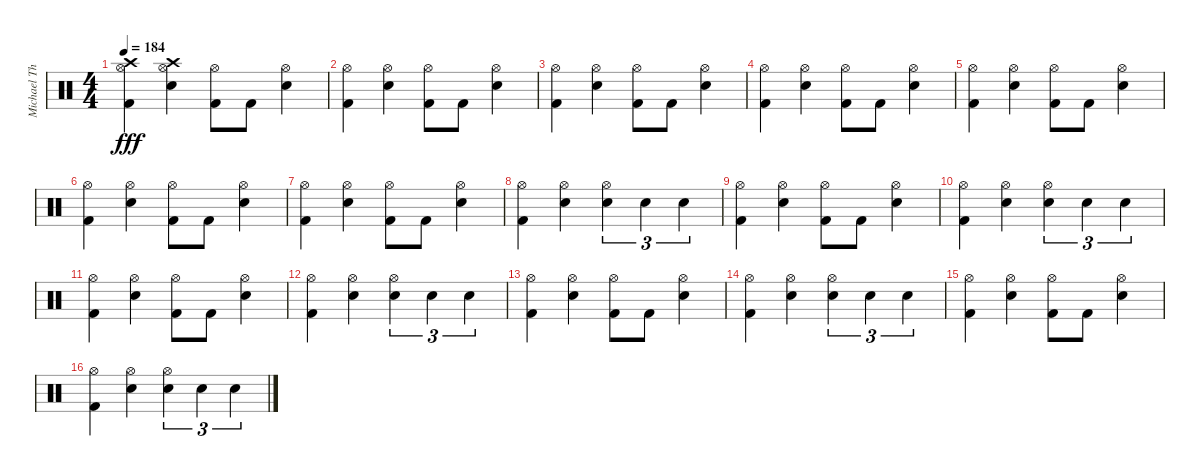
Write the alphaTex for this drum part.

\track ("Michael Thomas" "Michael Th") {instrument percussion}
\staff {score}
\articulation defaults
\ts (4 4)
\tempo 184
\clef neutral
\ks c
("Crash high (hit)" "Hi-Hat (open)" "Kick (hit) 2").4{dy fff} ("Crash high (hit)" "Hi-Hat (open)" "Snare (hit) 2").4 ("Hi-Hat (open)" "Kick (hit) 2").8 "Kick (hit) 2".8 ("Hi-Hat (open)" "Snare (hit) 2").4 |
("Hi-Hat (open)" "Kick (hit) 2").4 ("Hi-Hat (open)" "Snare (hit) 2").4 ("Hi-Hat (open)" "Kick (hit) 2").8 "Kick (hit) 2".8 ("Hi-Hat (open)" "Snare (hit) 2").4 |
("Hi-Hat (open)" "Kick (hit) 2").4 ("Hi-Hat (open)" "Snare (hit) 2").4 ("Hi-Hat (open)" "Kick (hit) 2").8 "Kick (hit) 2".8 ("Hi-Hat (open)" "Snare (hit) 2").4 |
("Hi-Hat (open)" "Kick (hit) 2").4 ("Hi-Hat (open)" "Snare (hit) 2").4 ("Hi-Hat (open)" "Kick (hit) 2").8 "Kick (hit) 2".8 ("Hi-Hat (open)" "Snare (hit) 2").4 |
("Hi-Hat (open)" "Kick (hit) 2").4 ("Hi-Hat (open)" "Snare (hit) 2").4 ("Hi-Hat (open)" "Kick (hit) 2").8 "Kick (hit) 2".8 ("Hi-Hat (open)" "Snare (hit) 2").4 |
("Hi-Hat (open)" "Kick (hit) 2").4 ("Hi-Hat (open)" "Snare (hit) 2").4 ("Hi-Hat (open)" "Kick (hit) 2").8 "Kick (hit) 2".8 ("Hi-Hat (open)" "Snare (hit) 2").4 |
("Hi-Hat (open)" "Kick (hit) 2").4 ("Hi-Hat (open)" "Snare (hit) 2").4 ("Hi-Hat (open)" "Kick (hit) 2").8 "Kick (hit) 2".8 ("Hi-Hat (open)" "Snare (hit) 2").4 |
("Hi-Hat (open)" "Kick (hit) 2").4 ("Hi-Hat (open)" "Snare (hit) 2").4 ("Hi-Hat (open)" "Snare (hit) 2").4{tu (3 2)} "Snare (hit) 2".4{tu (3 2)} "Snare (hit) 2".4{tu (3 2)} |
("Hi-Hat (open)" "Kick (hit) 2").4 ("Hi-Hat (open)" "Snare (hit) 2").4 ("Hi-Hat (open)" "Kick (hit) 2").8 "Kick (hit) 2".8 ("Hi-Hat (open)" "Snare (hit) 2").4 |
("Hi-Hat (open)" "Kick (hit) 2").4 ("Hi-Hat (open)" "Snare (hit) 2").4 ("Hi-Hat (open)" "Snare (hit) 2").4{tu (3 2)} "Snare (hit) 2".4{tu (3 2)} "Snare (hit) 2".4{tu (3 2)} |
("Hi-Hat (open)" "Kick (hit) 2").4 ("Hi-Hat (open)" "Snare (hit) 2").4 ("Hi-Hat (open)" "Kick (hit) 2").8 "Kick (hit) 2".8 ("Hi-Hat (open)" "Snare (hit) 2").4 |
("Hi-Hat (open)" "Kick (hit) 2").4 ("Hi-Hat (open)" "Snare (hit) 2").4 ("Hi-Hat (open)" "Snare (hit) 2").4{tu (3 2)} "Snare (hit) 2".4{tu (3 2)} "Snare (hit) 2".4{tu (3 2)} |
("Hi-Hat (open)" "Kick (hit) 2").4 ("Hi-Hat (open)" "Snare (hit) 2").4 ("Hi-Hat (open)" "Kick (hit) 2").8 "Kick (hit) 2".8 ("Hi-Hat (open)" "Snare (hit) 2").4 |
("Hi-Hat (open)" "Kick (hit) 2").4 ("Hi-Hat (open)" "Snare (hit) 2").4 ("Hi-Hat (open)" "Snare (hit) 2").4{tu (3 2)} "Snare (hit) 2".4{tu (3 2)} "Snare (hit) 2".4{tu (3 2)} |
("Hi-Hat (open)" "Kick (hit) 2").4 ("Hi-Hat (open)" "Snare (hit) 2").4 ("Hi-Hat (open)" "Kick (hit) 2").8 "Kick (hit) 2".8 ("Hi-Hat (open)" "Snare (hit) 2").4 |
("Hi-Hat (open)" "Kick (hit) 2").4 ("Hi-Hat (open)" "Snare (hit) 2").4 ("Hi-Hat (open)" "Snare (hit) 2").4{tu (3 2)} "Snare (hit) 2".4{tu (3 2)} "Snare (hit) 2".4{tu (3 2)}
